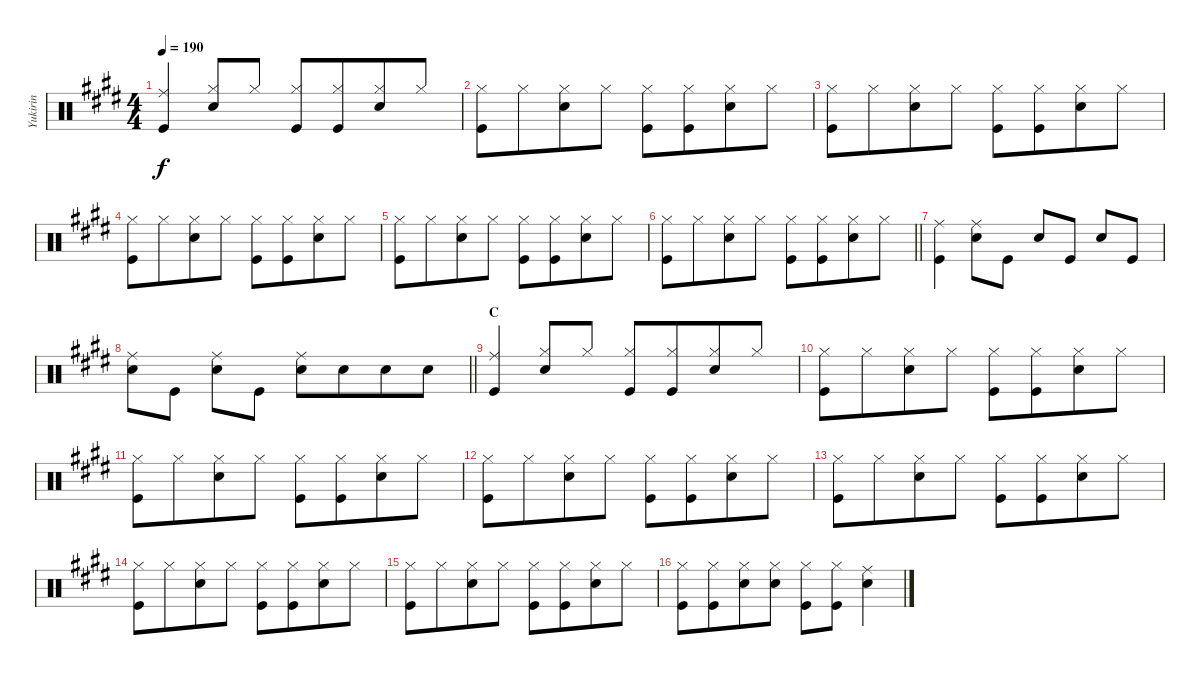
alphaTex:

\track ("Yukirin" "Yukirin") {mute instrument percussion}
\staff {score}
\articulation defaults
\ts (4 4)
\tempo 190
\clef neutral
\ks e
("Ride (middle)" "Kick (hit)").4{dy f beam Up} ("Hi-Hat (closed)" "Snare (hit) 2").8{beam Up} "Hi-Hat (closed)".8{beam Up} ("Hi-Hat (closed)" "Kick (hit)").8{beam Up} ("Hi-Hat (closed)" "Kick (hit)").8{beam Up beam merge} ("Hi-Hat (closed)" "Snare (hit) 2").8{beam Up} "Hi-Hat (closed)".8{beam Up} |
("Hi-Hat (closed)" "Kick (hit)").8 "Hi-Hat (closed)".8{beam merge} ("Hi-Hat (closed)" "Snare (hit) 2").8 "Hi-Hat (closed)".8 ("Hi-Hat (closed)" "Kick (hit)").8 ("Hi-Hat (closed)" "Kick (hit)").8{beam merge} ("Hi-Hat (closed)" "Snare (hit) 2").8 "Hi-Hat (closed)".8 |
("Hi-Hat (closed)" "Kick (hit)").8 "Hi-Hat (closed)".8{beam merge} ("Hi-Hat (closed)" "Snare (hit) 2").8 "Hi-Hat (closed)".8 ("Hi-Hat (closed)" "Kick (hit)").8 ("Hi-Hat (closed)" "Kick (hit)").8{beam merge} ("Hi-Hat (closed)" "Snare (hit) 2").8 "Hi-Hat (closed)".8 |
("Hi-Hat (closed)" "Kick (hit)").8 "Hi-Hat (closed)".8{beam merge} ("Hi-Hat (closed)" "Snare (hit) 2").8 "Hi-Hat (closed)".8 ("Hi-Hat (closed)" "Kick (hit)").8 ("Hi-Hat (closed)" "Kick (hit)").8{beam merge} ("Hi-Hat (closed)" "Snare (hit) 2").8 "Hi-Hat (closed)".8 |
("Hi-Hat (closed)" "Kick (hit)").8 "Hi-Hat (closed)".8{beam merge} ("Hi-Hat (closed)" "Snare (hit) 2").8 "Hi-Hat (closed)".8 ("Hi-Hat (closed)" "Kick (hit)").8 ("Hi-Hat (closed)" "Kick (hit)").8{beam merge} ("Hi-Hat (closed)" "Snare (hit) 2").8 "Hi-Hat (closed)".8 |
\barLineRight lightlight
("Hi-Hat (closed)" "Kick (hit)").8 "Hi-Hat (closed)".8{beam merge} ("Hi-Hat (closed)" "Snare (hit) 2").8 "Hi-Hat (closed)".8 ("Hi-Hat (closed)" "Kick (hit)").8 ("Hi-Hat (closed)" "Kick (hit)").8{beam merge} ("Hi-Hat (closed)" "Snare (hit) 2").8 "Hi-Hat (closed)".8 |
("Ride (middle)" "Kick (hit)").4 ("Ride (middle)" "Snare (hit) 2").8 "Kick (hit)".8 "Snare (hit) 2".8 "Kick (hit)".8 "Snare (hit) 2".8 "Kick (hit)".8 |
\barLineRight lightlight
("Ride (middle)" "Snare (hit) 2").8 "Kick (hit)".8 ("Ride (middle)" "Snare (hit) 2").8 "Kick (hit)".8 ("Ride (middle)" "Snare (hit) 2").8 "Snare (hit) 2".8{beam merge} "Snare (hit) 2".8 "Snare (hit) 2".8 |
\section ("" "C")
("Ride (middle)" "Kick (hit)").4{beam Up} ("Hi-Hat (closed)" "Snare (hit) 2").8{beam Up} "Hi-Hat (closed)".8{beam Up} ("Hi-Hat (closed)" "Kick (hit)").8{beam Up} ("Hi-Hat (closed)" "Kick (hit)").8{beam Up beam merge} ("Hi-Hat (closed)" "Snare (hit) 2").8{beam Up} "Hi-Hat (closed)".8{beam Up} |
("Hi-Hat (closed)" "Kick (hit)").8 "Hi-Hat (closed)".8{beam merge} ("Hi-Hat (closed)" "Snare (hit) 2").8 "Hi-Hat (closed)".8 ("Hi-Hat (closed)" "Kick (hit)").8 ("Hi-Hat (closed)" "Kick (hit)").8{beam merge} ("Hi-Hat (closed)" "Snare (hit) 2").8 "Hi-Hat (closed)".8 |
("Hi-Hat (closed)" "Kick (hit)").8 "Hi-Hat (closed)".8{beam merge} ("Hi-Hat (closed)" "Snare (hit) 2").8 "Hi-Hat (closed)".8 ("Hi-Hat (closed)" "Kick (hit)").8 ("Hi-Hat (closed)" "Kick (hit)").8{beam merge} ("Hi-Hat (closed)" "Snare (hit) 2").8 "Hi-Hat (closed)".8 |
("Hi-Hat (closed)" "Kick (hit)").8 "Hi-Hat (closed)".8{beam merge} ("Hi-Hat (closed)" "Snare (hit) 2").8 "Hi-Hat (closed)".8 ("Hi-Hat (closed)" "Kick (hit)").8 ("Hi-Hat (closed)" "Kick (hit)").8{beam merge} ("Hi-Hat (closed)" "Snare (hit) 2").8 "Hi-Hat (closed)".8 |
("Hi-Hat (closed)" "Kick (hit)").8 "Hi-Hat (closed)".8{beam merge} ("Hi-Hat (closed)" "Snare (hit) 2").8 "Hi-Hat (closed)".8 ("Hi-Hat (closed)" "Kick (hit)").8 ("Hi-Hat (closed)" "Kick (hit)").8{beam merge} ("Hi-Hat (closed)" "Snare (hit) 2").8 "Hi-Hat (closed)".8 |
("Hi-Hat (closed)" "Kick (hit)").8 "Hi-Hat (closed)".8{beam merge} ("Hi-Hat (closed)" "Snare (hit) 2").8 "Hi-Hat (closed)".8 ("Hi-Hat (closed)" "Kick (hit)").8 ("Hi-Hat (closed)" "Kick (hit)").8{beam merge} ("Hi-Hat (closed)" "Snare (hit) 2").8 "Hi-Hat (closed)".8 |
("Hi-Hat (closed)" "Kick (hit)").8 "Hi-Hat (closed)".8{beam merge} ("Hi-Hat (closed)" "Snare (hit) 2").8 "Hi-Hat (closed)".8 ("Hi-Hat (closed)" "Kick (hit)").8 ("Hi-Hat (closed)" "Kick (hit)").8{beam merge} ("Hi-Hat (closed)" "Snare (hit) 2").8 "Hi-Hat (closed)".8 |
("Hi-Hat (closed)" "Kick (hit)").8 ("Hi-Hat (closed)" "Kick (hit)").8{beam merge} ("Hi-Hat (closed)" "Snare (hit) 2").8 ("Hi-Hat (closed)" "Snare (hit) 2").8 ("Hi-Hat (closed)" "Kick (hit)").8 ("Hi-Hat (closed)" "Kick (hit)").8{beam merge} ("Ride (middle)" "Snare (hit) 2").4
